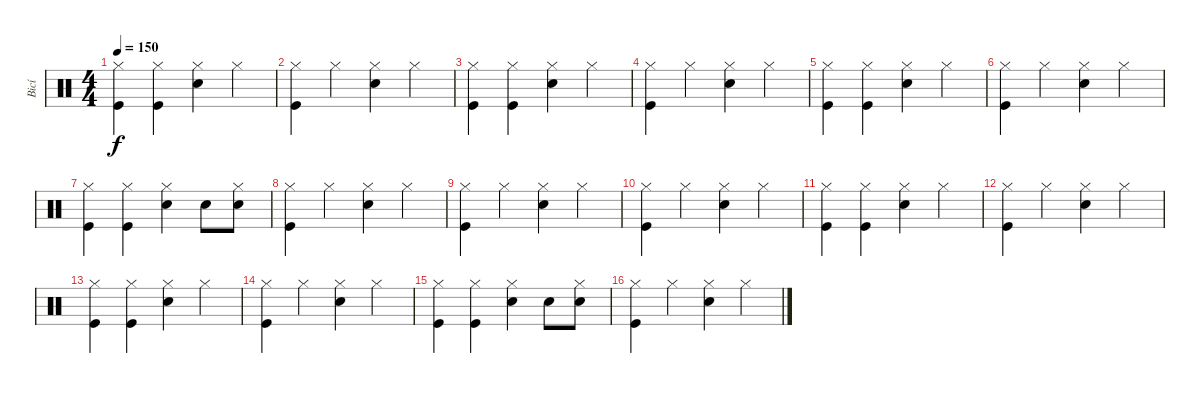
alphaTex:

\track ("Bicí" "Bicí") {instrument percussion}
\staff {score}
\articulation defaults
\ts (4 4)
\tempo 150
\clef neutral
\ks c
("Kick (hit)" "Hi-Hat (closed)").4{dy f} ("Kick (hit)" "Hi-Hat (closed)").4 ("Snare (hit) 2" "Hi-Hat (closed)").4 "Hi-Hat (closed)".4 |
("Kick (hit)" "Hi-Hat (closed)").4 "Hi-Hat (closed)".4 ("Snare (hit) 2" "Hi-Hat (closed)").4 "Hi-Hat (closed)".4 |
("Kick (hit)" "Hi-Hat (closed)").4 ("Kick (hit)" "Hi-Hat (closed)").4 ("Snare (hit) 2" "Hi-Hat (closed)").4 "Hi-Hat (closed)".4 |
("Kick (hit)" "Hi-Hat (closed)").4 "Hi-Hat (closed)".4 ("Snare (hit) 2" "Hi-Hat (closed)").4 "Hi-Hat (closed)".4 |
("Kick (hit)" "Hi-Hat (closed)").4 ("Kick (hit)" "Hi-Hat (closed)").4 ("Snare (hit) 2" "Hi-Hat (closed)").4 "Hi-Hat (closed)".4 |
("Kick (hit)" "Hi-Hat (closed)").4 "Hi-Hat (closed)".4 ("Snare (hit) 2" "Hi-Hat (closed)").4 "Hi-Hat (closed)".4 |
("Kick (hit)" "Hi-Hat (closed)").4 ("Kick (hit)" "Hi-Hat (closed)").4 ("Snare (hit) 2" "Hi-Hat (closed)").4 "Snare (hit) 2".8 ("Snare (hit) 2" "Hi-Hat (closed)").8 |
("Kick (hit)" "Hi-Hat (closed)").4 "Hi-Hat (closed)".4 ("Snare (hit) 2" "Hi-Hat (closed)").4 "Hi-Hat (closed)".4 |
("Kick (hit)" "Hi-Hat (closed)").4 "Hi-Hat (closed)".4 ("Snare (hit) 2" "Hi-Hat (closed)").4 "Hi-Hat (closed)".4 |
("Kick (hit)" "Hi-Hat (closed)").4 "Hi-Hat (closed)".4 ("Snare (hit) 2" "Hi-Hat (closed)").4 "Hi-Hat (closed)".4 |
("Kick (hit)" "Hi-Hat (closed)").4 ("Kick (hit)" "Hi-Hat (closed)").4 ("Snare (hit) 2" "Hi-Hat (closed)").4 "Hi-Hat (closed)".4 |
("Kick (hit)" "Hi-Hat (closed)").4 "Hi-Hat (closed)".4 ("Snare (hit) 2" "Hi-Hat (closed)").4 "Hi-Hat (closed)".4 |
("Kick (hit)" "Hi-Hat (closed)").4 ("Kick (hit)" "Hi-Hat (closed)").4 ("Snare (hit) 2" "Hi-Hat (closed)").4 "Hi-Hat (closed)".4 |
("Kick (hit)" "Hi-Hat (closed)").4 "Hi-Hat (closed)".4 ("Snare (hit) 2" "Hi-Hat (closed)").4 "Hi-Hat (closed)".4 |
("Kick (hit)" "Hi-Hat (closed)").4 ("Kick (hit)" "Hi-Hat (closed)").4 ("Snare (hit) 2" "Hi-Hat (closed)").4 "Snare (hit) 2".8 ("Snare (hit) 2" "Hi-Hat (closed)").8 |
("Kick (hit)" "Hi-Hat (closed)").4 "Hi-Hat (closed)".4 ("Snare (hit) 2" "Hi-Hat (closed)").4 "Hi-Hat (closed)".4
